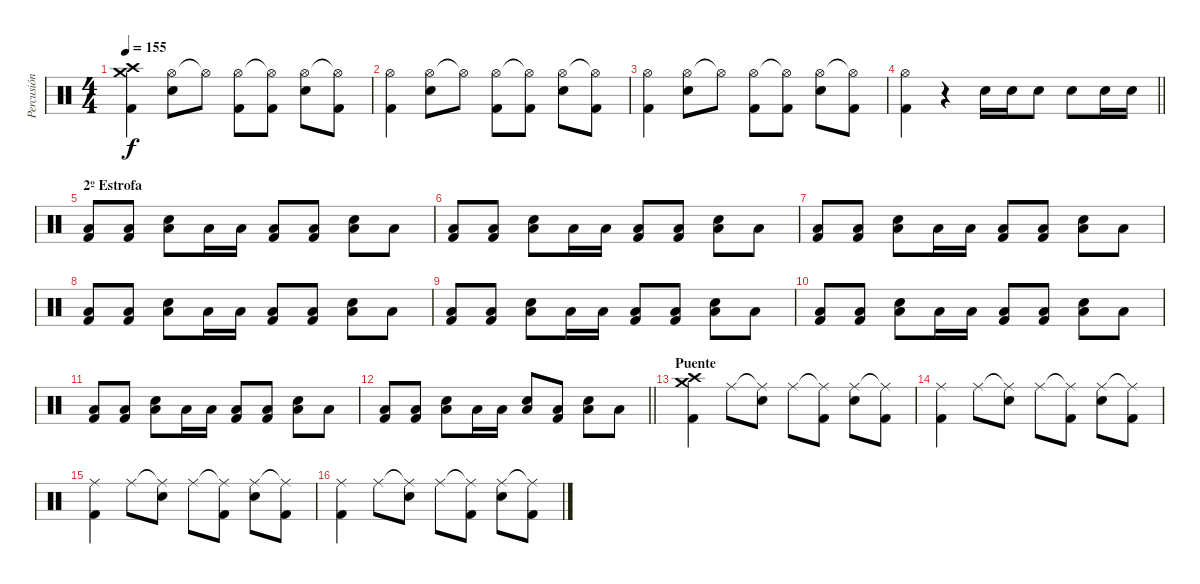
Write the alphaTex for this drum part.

\track ("Percusión" "Percusión") {instrument percussion}
\staff {score}
\articulation defaults
\ts (4 4)
\tempo 155
\clef neutral
\ks c
("Crash medium (hit)" "Crash high (hit)" "Kick (hit) 2").4{dy f} ("Hi-Hat (open)" "Electric Snare (hit)").8 "Hi-Hat (open)"{t}.8 ("Hi-Hat (open)" "Kick (hit) 2").8 ("Hi-Hat (open)"{t} "Kick (hit) 2").8 ("Hi-Hat (open)" "Electric Snare (hit)").8 ("Hi-Hat (open)"{t} "Kick (hit) 2").8 |
("Hi-Hat (open)" "Kick (hit) 2").4 ("Hi-Hat (open)" "Electric Snare (hit)").8 "Hi-Hat (open)"{t}.8 ("Hi-Hat (open)" "Kick (hit) 2").8 ("Hi-Hat (open)"{t} "Kick (hit) 2").8 ("Hi-Hat (open)" "Electric Snare (hit)").8 ("Hi-Hat (open)"{t} "Kick (hit) 2").8 |
("Hi-Hat (open)" "Kick (hit) 2").4 ("Hi-Hat (open)" "Electric Snare (hit)").8 "Hi-Hat (open)"{t}.8 ("Hi-Hat (open)" "Kick (hit) 2").8 ("Hi-Hat (open)"{t} "Kick (hit) 2").8 ("Hi-Hat (open)" "Electric Snare (hit)").8 ("Hi-Hat (open)"{t} "Kick (hit) 2").8 |
\barLineRight lightlight
("Hi-Hat (open)" "Kick (hit) 2").4 r.4 "Electric Snare (hit)".16 "Electric Snare (hit)".16 "Electric Snare (hit)".8 "Electric Snare (hit)".8 "Electric Snare (hit)".16 "Electric Snare (hit)".16 |
\section ("" "2º Estrofa")
("Low Floor Tom (hit)" "Kick (hit) 2").8 ("Low Floor Tom (hit)" "Kick (hit) 2").8 ("Low Floor Tom (hit)" "Electric Snare (hit)").8 "Low Floor Tom (hit)".16 "Low Floor Tom (hit)".16 ("Low Floor Tom (hit)" "Kick (hit) 2").8 ("Low Floor Tom (hit)" "Kick (hit) 2").8 ("Low Floor Tom (hit)" "Electric Snare (hit)").8 "Low Floor Tom (hit)".8 |
("Low Floor Tom (hit)" "Kick (hit) 2").8 ("Low Floor Tom (hit)" "Kick (hit) 2").8 ("Low Floor Tom (hit)" "Electric Snare (hit)").8 "Low Floor Tom (hit)".16 "Low Floor Tom (hit)".16 ("Low Floor Tom (hit)" "Kick (hit) 2").8 ("Low Floor Tom (hit)" "Kick (hit) 2").8 ("Low Floor Tom (hit)" "Electric Snare (hit)").8 "Low Floor Tom (hit)".8 |
("Low Floor Tom (hit)" "Kick (hit) 2").8 ("Low Floor Tom (hit)" "Kick (hit) 2").8 ("Low Floor Tom (hit)" "Electric Snare (hit)").8 "Low Floor Tom (hit)".16 "Low Floor Tom (hit)".16 ("Low Floor Tom (hit)" "Kick (hit) 2").8 ("Low Floor Tom (hit)" "Kick (hit) 2").8 ("Low Floor Tom (hit)" "Electric Snare (hit)").8 "Low Floor Tom (hit)".8 |
("Low Floor Tom (hit)" "Kick (hit) 2").8 ("Low Floor Tom (hit)" "Kick (hit) 2").8 ("Low Floor Tom (hit)" "Electric Snare (hit)").8 "Low Floor Tom (hit)".16 "Low Floor Tom (hit)".16 ("Low Floor Tom (hit)" "Kick (hit) 2").8 ("Low Floor Tom (hit)" "Kick (hit) 2").8 ("Low Floor Tom (hit)" "Electric Snare (hit)").8 "Low Floor Tom (hit)".8 |
("Low Floor Tom (hit)" "Kick (hit) 2").8 ("Low Floor Tom (hit)" "Kick (hit) 2").8 ("Low Floor Tom (hit)" "Electric Snare (hit)").8 "Low Floor Tom (hit)".16 "Low Floor Tom (hit)".16 ("Low Floor Tom (hit)" "Kick (hit) 2").8 ("Low Floor Tom (hit)" "Kick (hit) 2").8 ("Low Floor Tom (hit)" "Electric Snare (hit)").8 "Low Floor Tom (hit)".8 |
("Low Floor Tom (hit)" "Kick (hit) 2").8 ("Low Floor Tom (hit)" "Kick (hit) 2").8 ("Low Floor Tom (hit)" "Electric Snare (hit)").8 "Low Floor Tom (hit)".16 "Low Floor Tom (hit)".16 ("Low Floor Tom (hit)" "Kick (hit) 2").8 ("Low Floor Tom (hit)" "Kick (hit) 2").8 ("Low Floor Tom (hit)" "Electric Snare (hit)").8 "Low Floor Tom (hit)".8 |
("Low Floor Tom (hit)" "Kick (hit) 2").8 ("Low Floor Tom (hit)" "Kick (hit) 2").8 ("Low Floor Tom (hit)" "Electric Snare (hit)").8 "Low Floor Tom (hit)".16 "Low Floor Tom (hit)".16 ("Low Floor Tom (hit)" "Kick (hit) 2").8 ("Low Floor Tom (hit)" "Kick (hit) 2").8 ("Low Floor Tom (hit)" "Electric Snare (hit)").8 "Low Floor Tom (hit)".8 |
\barLineRight lightlight
("Low Floor Tom (hit)" "Kick (hit) 2").8 ("Low Floor Tom (hit)" "Kick (hit) 2").8 ("Low Floor Tom (hit)" "Electric Snare (hit)").8 "Low Floor Tom (hit)".16 "Low Floor Tom (hit)".16 ("Low Floor Tom (hit)" "Electric Snare (hit)").8 ("Low Floor Tom (hit)" "Kick (hit) 2").8 ("Low Floor Tom (hit)" "Electric Snare (hit)").8 "Low Floor Tom (hit)".8 |
\section ("" "Puente")
("Crash high (hit)" "Crash medium (hit)" "Kick (hit) 2").4 "Ride (middle)".8 ("Ride (middle)"{t} "Electric Snare (hit)").8 "Ride (middle)".8 ("Ride (middle)"{t} "Kick (hit) 2").8 ("Ride (middle)" "Electric Snare (hit)").8 ("Ride (middle)"{t} "Kick (hit) 2").8 |
("Ride (middle)" "Kick (hit) 2").4 "Ride (middle)".8 ("Ride (middle)"{t} "Electric Snare (hit)").8 "Ride (middle)".8 ("Ride (middle)"{t} "Kick (hit) 2").8 ("Ride (middle)" "Electric Snare (hit)").8 ("Ride (middle)"{t} "Kick (hit) 2").8 |
("Ride (middle)" "Kick (hit) 2").4 "Ride (middle)".8 ("Ride (middle)"{t} "Electric Snare (hit)").8 "Ride (middle)".8 ("Ride (middle)"{t} "Kick (hit) 2").8 ("Ride (middle)" "Electric Snare (hit)").8 ("Ride (middle)"{t} "Kick (hit) 2").8 |
("Ride (middle)" "Kick (hit) 2").4 "Ride (middle)".8 ("Ride (middle)"{t} "Electric Snare (hit)").8 "Ride (middle)".8 ("Ride (middle)"{t} "Kick (hit) 2").8 ("Ride (middle)" "Electric Snare (hit)").8 ("Ride (middle)"{t} "Kick (hit) 2").8
